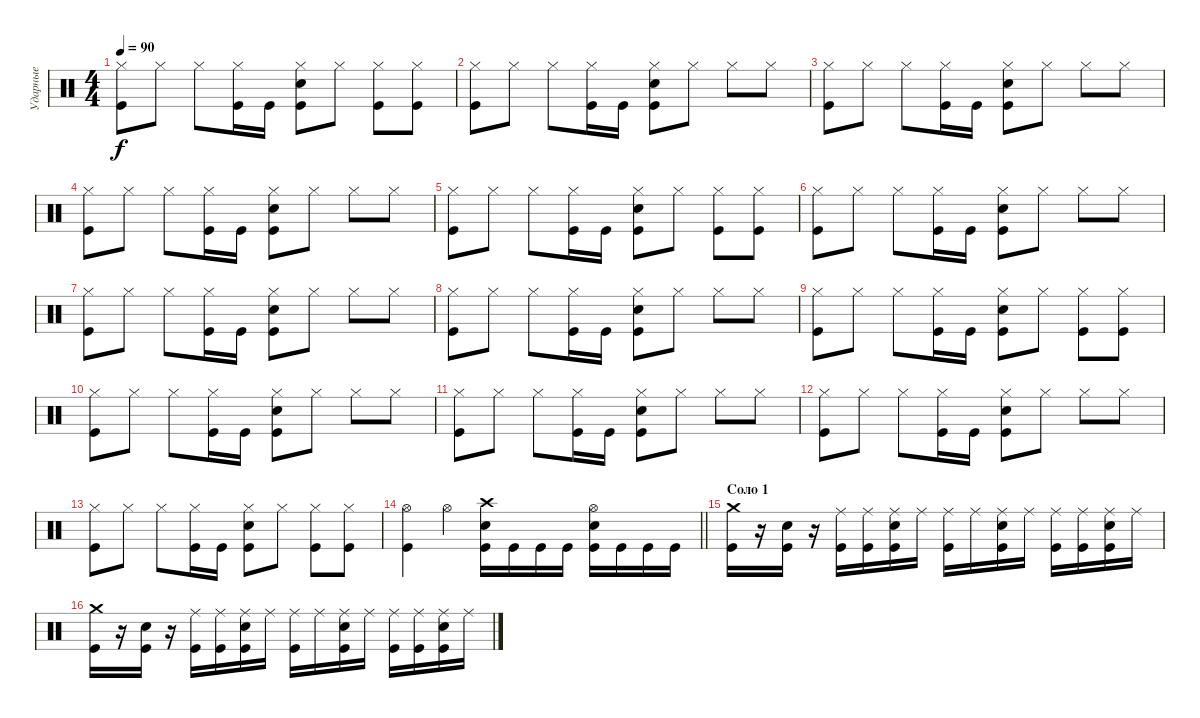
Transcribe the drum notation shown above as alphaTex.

\track ("Ударные" "Ударные") {instrument percussion}
\staff {score}
\articulation defaults
\ts (4 4)
\tempo 90
\clef neutral
\ks c
("Hi-Hat (closed)" "Kick (hit)").8{dy f} "Hi-Hat (closed)".8 "Hi-Hat (closed)".8 ("Kick (hit)" "Hi-Hat (closed)").16 "Kick (hit)".16 ("Hi-Hat (closed)" "Electric Snare (hit)" "Kick (hit)").8 "Hi-Hat (closed)".8 ("Hi-Hat (closed)" "Kick (hit)").8 ("Hi-Hat (closed)" "Kick (hit)").8 |
("Hi-Hat (closed)" "Kick (hit)").8 "Hi-Hat (closed)".8 "Hi-Hat (closed)".8 ("Kick (hit)" "Hi-Hat (closed)").16 "Kick (hit)".16 ("Hi-Hat (closed)" "Electric Snare (hit)" "Kick (hit)").8 "Hi-Hat (closed)".8 "Hi-Hat (closed)".8 "Hi-Hat (closed)".8 |
("Hi-Hat (closed)" "Kick (hit)").8 "Hi-Hat (closed)".8 "Hi-Hat (closed)".8 ("Kick (hit)" "Hi-Hat (closed)").16 "Kick (hit)".16 ("Hi-Hat (closed)" "Electric Snare (hit)" "Kick (hit)").8 "Hi-Hat (closed)".8 "Hi-Hat (closed)".8 "Hi-Hat (closed)".8 |
("Hi-Hat (closed)" "Kick (hit)").8 "Hi-Hat (closed)".8 "Hi-Hat (closed)".8 ("Kick (hit)" "Hi-Hat (closed)").16 "Kick (hit)".16 ("Hi-Hat (closed)" "Electric Snare (hit)" "Kick (hit)").8 "Hi-Hat (closed)".8 "Hi-Hat (closed)".8 "Hi-Hat (closed)".8 |
("Hi-Hat (closed)" "Kick (hit)").8 "Hi-Hat (closed)".8 "Hi-Hat (closed)".8 ("Kick (hit)" "Hi-Hat (closed)").16 "Kick (hit)".16 ("Hi-Hat (closed)" "Electric Snare (hit)" "Kick (hit)").8 "Hi-Hat (closed)".8 ("Hi-Hat (closed)" "Kick (hit)").8 ("Hi-Hat (closed)" "Kick (hit)").8 |
("Hi-Hat (closed)" "Kick (hit)").8 "Hi-Hat (closed)".8 "Hi-Hat (closed)".8 ("Kick (hit)" "Hi-Hat (closed)").16 "Kick (hit)".16 ("Hi-Hat (closed)" "Electric Snare (hit)" "Kick (hit)").8 "Hi-Hat (closed)".8 "Hi-Hat (closed)".8 "Hi-Hat (closed)".8 |
("Hi-Hat (closed)" "Kick (hit)").8 "Hi-Hat (closed)".8 "Hi-Hat (closed)".8 ("Kick (hit)" "Hi-Hat (closed)").16 "Kick (hit)".16 ("Hi-Hat (closed)" "Electric Snare (hit)" "Kick (hit)").8 "Hi-Hat (closed)".8 "Hi-Hat (closed)".8 "Hi-Hat (closed)".8 |
("Hi-Hat (closed)" "Kick (hit)").8 "Hi-Hat (closed)".8 "Hi-Hat (closed)".8 ("Kick (hit)" "Hi-Hat (closed)").16 "Kick (hit)".16 ("Hi-Hat (closed)" "Electric Snare (hit)" "Kick (hit)").8 "Hi-Hat (closed)".8 "Hi-Hat (closed)".8 "Hi-Hat (closed)".8 |
("Hi-Hat (closed)" "Kick (hit)").8 "Hi-Hat (closed)".8 "Hi-Hat (closed)".8 ("Kick (hit)" "Hi-Hat (closed)").16 "Kick (hit)".16 ("Hi-Hat (closed)" "Electric Snare (hit)" "Kick (hit)").8 "Hi-Hat (closed)".8 ("Hi-Hat (closed)" "Kick (hit)").8 ("Hi-Hat (closed)" "Kick (hit)").8 |
("Hi-Hat (closed)" "Kick (hit)").8 "Hi-Hat (closed)".8 "Hi-Hat (closed)".8 ("Kick (hit)" "Hi-Hat (closed)").16 "Kick (hit)".16 ("Hi-Hat (closed)" "Electric Snare (hit)" "Kick (hit)").8 "Hi-Hat (closed)".8 "Hi-Hat (closed)".8 "Hi-Hat (closed)".8 |
("Hi-Hat (closed)" "Kick (hit)").8 "Hi-Hat (closed)".8 "Hi-Hat (closed)".8 ("Kick (hit)" "Hi-Hat (closed)").16 "Kick (hit)".16 ("Hi-Hat (closed)" "Electric Snare (hit)" "Kick (hit)").8 "Hi-Hat (closed)".8 "Hi-Hat (closed)".8 "Hi-Hat (closed)".8 |
("Hi-Hat (closed)" "Kick (hit)").8 "Hi-Hat (closed)".8 "Hi-Hat (closed)".8 ("Kick (hit)" "Hi-Hat (closed)").16 "Kick (hit)".16 ("Hi-Hat (closed)" "Electric Snare (hit)" "Kick (hit)").8 "Hi-Hat (closed)".8 "Hi-Hat (closed)".8 "Hi-Hat (closed)".8 |
("Hi-Hat (closed)" "Kick (hit)").8 "Hi-Hat (closed)".8 "Hi-Hat (closed)".8 ("Kick (hit)" "Hi-Hat (closed)").16 "Kick (hit)".16 ("Hi-Hat (closed)" "Electric Snare (hit)" "Kick (hit)").8 "Hi-Hat (closed)".8 ("Hi-Hat (closed)" "Kick (hit)").8 ("Hi-Hat (closed)" "Kick (hit)").8 |
\barLineRight lightlight
("Hi-Hat (open)" "Kick (hit)").4 "Hi-Hat (open)".4 ("Kick (hit)" "Crash high (hit)" "Electric Snare (hit)").16 "Kick (hit)".16 "Kick (hit)".16 "Kick (hit)".16 ("Kick (hit)" "Hi-Hat (open)" "Electric Snare (hit)").16 "Kick (hit)".16 "Kick (hit)".16 "Kick (hit)".16 |
\section ("" "Соло 1")
("Kick (hit)" "Crash medium (hit)").16 r.16 ("Kick (hit)" "Electric Snare (hit)").16 r.16 ("Kick (hit)" "Ride (middle)").16 ("Kick (hit)" "Ride (middle)").16 ("Kick (hit)" "Ride (middle)" "Electric Snare (hit)").16 "Ride (middle)".16 ("Kick (hit)" "Ride (middle)").16 "Ride (middle)".16 ("Kick (hit)" "Ride (middle)" "Electric Snare (hit)").16 "Ride (middle)".16 ("Kick (hit)" "Ride (middle)").16 ("Kick (hit)" "Ride (middle)").16 ("Kick (hit)" "Ride (middle)" "Electric Snare (hit)").16 "Ride (middle)".16 |
("Kick (hit)" "Crash medium (hit)").16 r.16 ("Kick (hit)" "Electric Snare (hit)").16 r.16 ("Kick (hit)" "Ride (middle)").16 ("Kick (hit)" "Ride (middle)").16 ("Kick (hit)" "Ride (middle)" "Electric Snare (hit)").16 "Ride (middle)".16 ("Kick (hit)" "Ride (middle)").16 "Ride (middle)".16 ("Kick (hit)" "Ride (middle)" "Electric Snare (hit)").16 "Ride (middle)".16 ("Kick (hit)" "Ride (middle)").16 ("Kick (hit)" "Ride (middle)").16 ("Kick (hit)" "Ride (middle)" "Electric Snare (hit)").16 "Ride (middle)".16
